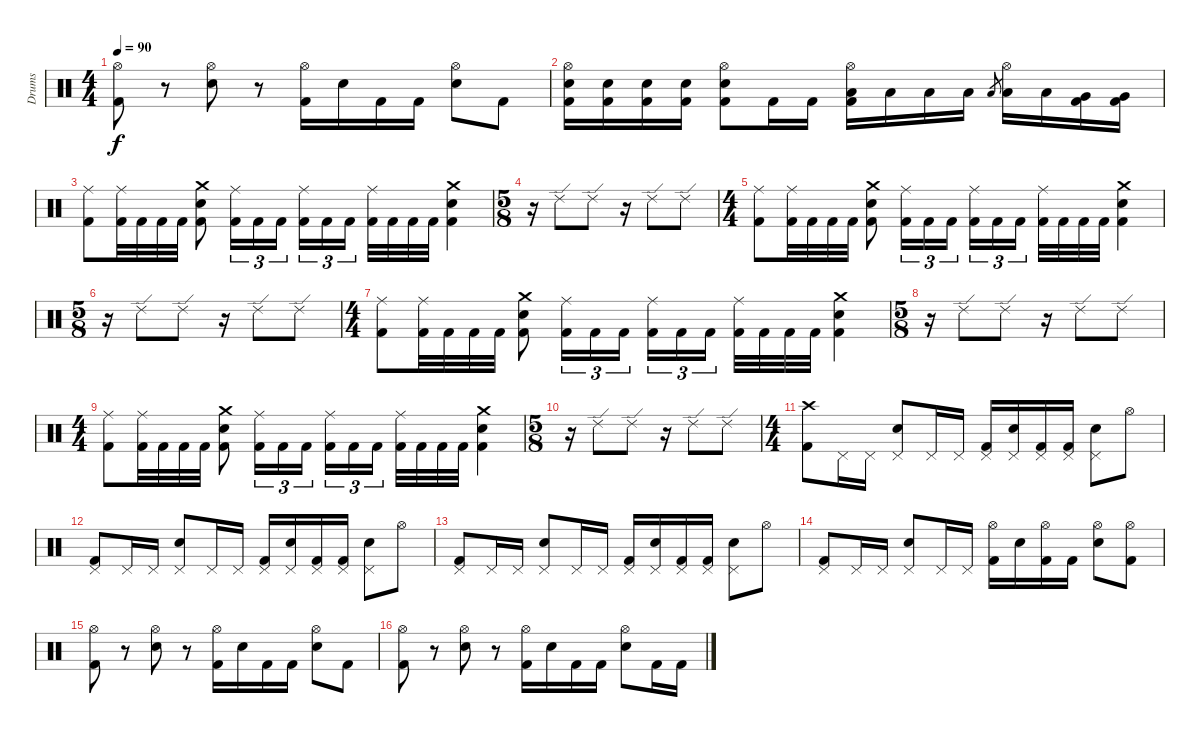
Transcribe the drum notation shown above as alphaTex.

\track ("Drums" "Drums") {instrument percussion}
\staff {score}
\articulation defaults
\ts (4 4)
\tempo 90
\clef neutral
\ks c
("Hi-Hat (open)" "Kick (hit) 2").8{dy f} r.8 ("Hi-Hat (open)" "Electric Snare (hit)").8 r.8 ("Hi-Hat (open)" "Kick (hit) 2").16 "Electric Snare (hit)".16 "Kick (hit) 2".16 "Kick (hit) 2".16 ("Hi-Hat (open)" "Electric Snare (hit)").8 "Kick (hit) 2".8 |
("Hi-Hat (open)" "Electric Snare (hit)" "Kick (hit) 2").16 ("Electric Snare (hit)" "Kick (hit) 2").16 ("Electric Snare (hit)" "Kick (hit) 2").16 ("Electric Snare (hit)" "Kick (hit) 2").16 ("Hi-Hat (open)" "Electric Snare (hit)" "Kick (hit) 2").8 "Kick (hit) 2".16 "Kick (hit) 2".16 ("Hi-Hat (open)" "Low Tom (hit)" "Kick (hit) 2").16 "Low Tom (hit)".16 "Low Tom (hit)".16 "Low Tom (hit)".16 "Low Tom (hit)".8{gr} ("Hi-Hat (open)" "Low Tom (hit)").16 "Low Tom (hit)".16 ("Very Low Tom (hit)" "Kick (hit) 2").16 ("Very Low Tom (hit)" "Kick (hit) 2").16 |
("Ride (middle)" "Kick (hit) 2").8 ("Ride (middle)" "Kick (hit) 2").32 "Kick (hit) 2".32 "Kick (hit) 2".32 "Kick (hit) 2".32 ("Crash medium (hit)" "Electric Snare (hit)" "Kick (hit) 2").8 ("Ride (middle)" "Kick (hit) 2").16{tu (3 2)} "Kick (hit) 2".16{tu (3 2)} "Kick (hit) 2".16{tu (3 2)} ("Ride (middle)" "Kick (hit) 2").16{tu (3 2)} "Kick (hit) 2".16{tu (3 2)} "Kick (hit) 2".16{tu (3 2)} ("Ride (middle)" "Kick (hit) 2").32 "Kick (hit) 2".32 "Kick (hit) 2".32 "Kick (hit) 2".32 ("Crash medium (hit)" "Electric Snare (hit)" "Kick (hit) 2").4 |
\ts (5 8)
r.16 "Ride (edge) 2".8 "Ride (edge) 2".8 r.16 "Ride (edge) 2".8 "Ride (edge) 2".8 |
\ts (4 4)
("Ride (middle)" "Kick (hit) 2").8 ("Ride (middle)" "Kick (hit) 2").32 "Kick (hit) 2".32 "Kick (hit) 2".32 "Kick (hit) 2".32 ("Crash medium (hit)" "Electric Snare (hit)" "Kick (hit) 2").8 ("Ride (middle)" "Kick (hit) 2").16{tu (3 2)} "Kick (hit) 2".16{tu (3 2)} "Kick (hit) 2".16{tu (3 2)} ("Ride (middle)" "Kick (hit) 2").16{tu (3 2)} "Kick (hit) 2".16{tu (3 2)} "Kick (hit) 2".16{tu (3 2)} ("Ride (middle)" "Kick (hit) 2").32 "Kick (hit) 2".32 "Kick (hit) 2".32 "Kick (hit) 2".32 ("Crash medium (hit)" "Electric Snare (hit)" "Kick (hit) 2").4 |
\ts (5 8)
r.16 "Ride (edge) 2".8 "Ride (edge) 2".8 r.16 "Ride (edge) 2".8 "Ride (edge) 2".8 |
\ts (4 4)
("Ride (middle)" "Kick (hit) 2").8 ("Ride (middle)" "Kick (hit) 2").32 "Kick (hit) 2".32 "Kick (hit) 2".32 "Kick (hit) 2".32 ("Crash medium (hit)" "Electric Snare (hit)" "Kick (hit) 2").8 ("Ride (middle)" "Kick (hit) 2").16{tu (3 2)} "Kick (hit) 2".16{tu (3 2)} "Kick (hit) 2".16{tu (3 2)} ("Ride (middle)" "Kick (hit) 2").16{tu (3 2)} "Kick (hit) 2".16{tu (3 2)} "Kick (hit) 2".16{tu (3 2)} ("Ride (middle)" "Kick (hit) 2").32 "Kick (hit) 2".32 "Kick (hit) 2".32 "Kick (hit) 2".32 ("Crash medium (hit)" "Electric Snare (hit)" "Kick (hit) 2").4 |
\ts (5 8)
r.16 "Ride (edge) 2".8 "Ride (edge) 2".8 r.16 "Ride (edge) 2".8 "Ride (edge) 2".8 |
\ts (4 4)
("Ride (middle)" "Kick (hit) 2").8 ("Ride (middle)" "Kick (hit) 2").32 "Kick (hit) 2".32 "Kick (hit) 2".32 "Kick (hit) 2".32 ("Crash medium (hit)" "Electric Snare (hit)" "Kick (hit) 2").8 ("Ride (middle)" "Kick (hit) 2").16{tu (3 2)} "Kick (hit) 2".16{tu (3 2)} "Kick (hit) 2".16{tu (3 2)} ("Ride (middle)" "Kick (hit) 2").16{tu (3 2)} "Kick (hit) 2".16{tu (3 2)} "Kick (hit) 2".16{tu (3 2)} ("Ride (middle)" "Kick (hit) 2").32 "Kick (hit) 2".32 "Kick (hit) 2".32 "Kick (hit) 2".32 ("Crash medium (hit)" "Electric Snare (hit)" "Kick (hit) 2").4 |
\ts (5 8)
r.16 "Ride (edge) 2".8 "Ride (edge) 2".8 r.16 "Ride (edge) 2".8 "Ride (edge) 2".8 |
\ts (4 4)
("Crash high (hit)" "Kick (hit) 2").8 "Pedal Hi-Hat (hit)".16 "Pedal Hi-Hat (hit)".16 ("Pedal Hi-Hat (hit)" "Electric Snare (hit)").8 "Pedal Hi-Hat (hit)".16 "Pedal Hi-Hat (hit)".16 ("Pedal Hi-Hat (hit)" "Kick (hit) 2").16 ("Pedal Hi-Hat (hit)" "Electric Snare (hit)").16 ("Pedal Hi-Hat (hit)" "Kick (hit) 2").16 ("Pedal Hi-Hat (hit)" "Kick (hit) 2").16 ("Pedal Hi-Hat (hit)" "Electric Snare (hit)").8 "Hi-Hat (open)".8 |
("Pedal Hi-Hat (hit)" "Kick (hit) 2").8 "Pedal Hi-Hat (hit)".16 "Pedal Hi-Hat (hit)".16 ("Pedal Hi-Hat (hit)" "Electric Snare (hit)").8 "Pedal Hi-Hat (hit)".16 "Pedal Hi-Hat (hit)".16 ("Pedal Hi-Hat (hit)" "Kick (hit) 2").16 ("Pedal Hi-Hat (hit)" "Electric Snare (hit)").16 ("Pedal Hi-Hat (hit)" "Kick (hit) 2").16 ("Pedal Hi-Hat (hit)" "Kick (hit) 2").16 ("Pedal Hi-Hat (hit)" "Electric Snare (hit)").8 "Hi-Hat (open)".8 |
("Pedal Hi-Hat (hit)" "Kick (hit) 2").8 "Pedal Hi-Hat (hit)".16 "Pedal Hi-Hat (hit)".16 ("Pedal Hi-Hat (hit)" "Electric Snare (hit)").8 "Pedal Hi-Hat (hit)".16 "Pedal Hi-Hat (hit)".16 ("Pedal Hi-Hat (hit)" "Kick (hit) 2").16 ("Pedal Hi-Hat (hit)" "Electric Snare (hit)").16 ("Pedal Hi-Hat (hit)" "Kick (hit) 2").16 ("Pedal Hi-Hat (hit)" "Kick (hit) 2").16 ("Pedal Hi-Hat (hit)" "Electric Snare (hit)").8 "Hi-Hat (open)".8 |
("Pedal Hi-Hat (hit)" "Kick (hit) 2").8 "Pedal Hi-Hat (hit)".16 "Pedal Hi-Hat (hit)".16 ("Pedal Hi-Hat (hit)" "Electric Snare (hit)").8 "Pedal Hi-Hat (hit)".16 "Pedal Hi-Hat (hit)".16 ("Hi-Hat (open)" "Kick (hit) 2").16 "Electric Snare (hit)".16 ("Hi-Hat (open)" "Kick (hit) 2").16 "Kick (hit) 2".16 ("Hi-Hat (open)" "Electric Snare (hit)").8 ("Hi-Hat (open)" "Kick (hit) 2").8 |
("Hi-Hat (open)" "Kick (hit) 2").8 r.8 ("Hi-Hat (open)" "Electric Snare (hit)").8 r.8 ("Hi-Hat (open)" "Kick (hit) 2").16 "Electric Snare (hit)".16 "Kick (hit) 2".16 "Kick (hit) 2".16 ("Hi-Hat (open)" "Electric Snare (hit)").8 "Kick (hit) 2".8 |
("Hi-Hat (open)" "Kick (hit) 2").8 r.8 ("Hi-Hat (open)" "Electric Snare (hit)").8 r.8 ("Hi-Hat (open)" "Kick (hit) 2").16 "Electric Snare (hit)".16 "Kick (hit) 2".16 "Kick (hit) 2".16 ("Hi-Hat (open)" "Electric Snare (hit)").8 "Kick (hit) 2".16 "Kick (hit) 2".16
